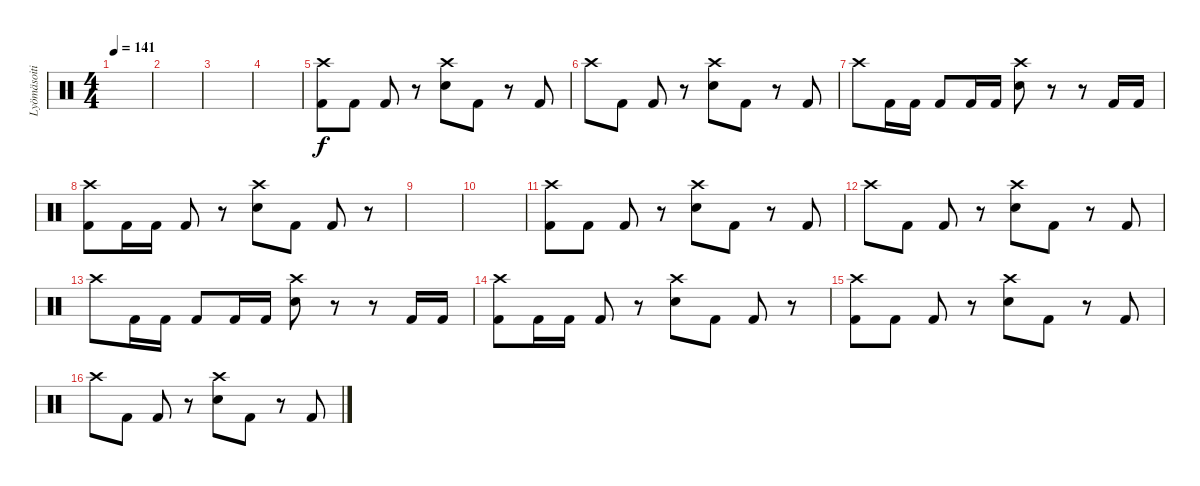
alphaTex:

\track ("Lyömäsoitin" "Lyömäsoiti") {instrument percussion}
\staff {score}
\articulation defaults
\ts (4 4)
\tempo 141
\clef neutral
\ks c
|
|
|
|
("Crash high (hit)" "Kick (hit) 2").8 "Kick (hit) 2".8 "Kick (hit) 2".8 r.8 ("Crash high (hit)" "Electric Snare (hit)").8 "Kick (hit) 2".8 r.8 "Kick (hit) 2".8 |
"Crash high (hit)".8 "Kick (hit) 2".8 "Kick (hit) 2".8 r.8 ("Crash high (hit)" "Electric Snare (hit)").8 "Kick (hit) 2".8 r.8 "Kick (hit) 2".8 |
"Crash high (hit)".8 "Kick (hit) 2".16 "Kick (hit) 2".16 "Kick (hit) 2".8 "Kick (hit) 2".16 "Kick (hit) 2".16 ("Crash high (hit)" "Electric Snare (hit)").8 r.8 r.8 "Kick (hit) 2".16 "Kick (hit) 2".16 |
("Crash high (hit)" "Kick (hit) 2").8 "Kick (hit) 2".16 "Kick (hit) 2".16 "Kick (hit) 2".8 r.8 ("Crash high (hit)" "Electric Snare (hit)").8 "Kick (hit) 2".8 "Kick (hit) 2".8 r.8 |
|
|
("Crash high (hit)" "Kick (hit) 2").8 "Kick (hit) 2".8 "Kick (hit) 2".8 r.8 ("Crash high (hit)" "Electric Snare (hit)").8 "Kick (hit) 2".8 r.8 "Kick (hit) 2".8 |
"Crash high (hit)".8 "Kick (hit) 2".8 "Kick (hit) 2".8 r.8 ("Crash high (hit)" "Electric Snare (hit)").8 "Kick (hit) 2".8 r.8 "Kick (hit) 2".8 |
"Crash high (hit)".8 "Kick (hit) 2".16 "Kick (hit) 2".16 "Kick (hit) 2".8 "Kick (hit) 2".16 "Kick (hit) 2".16 ("Crash high (hit)" "Electric Snare (hit)").8 r.8 r.8 "Kick (hit) 2".16 "Kick (hit) 2".16 |
("Crash high (hit)" "Kick (hit) 2").8 "Kick (hit) 2".16 "Kick (hit) 2".16 "Kick (hit) 2".8 r.8 ("Crash high (hit)" "Electric Snare (hit)").8 "Kick (hit) 2".8 "Kick (hit) 2".8 r.8 |
("Crash high (hit)" "Kick (hit) 2").8 "Kick (hit) 2".8 "Kick (hit) 2".8 r.8 ("Crash high (hit)" "Electric Snare (hit)").8 "Kick (hit) 2".8 r.8 "Kick (hit) 2".8 |
"Crash high (hit)".8 "Kick (hit) 2".8 "Kick (hit) 2".8 r.8 ("Crash high (hit)" "Electric Snare (hit)").8 "Kick (hit) 2".8 r.8 "Kick (hit) 2".8
